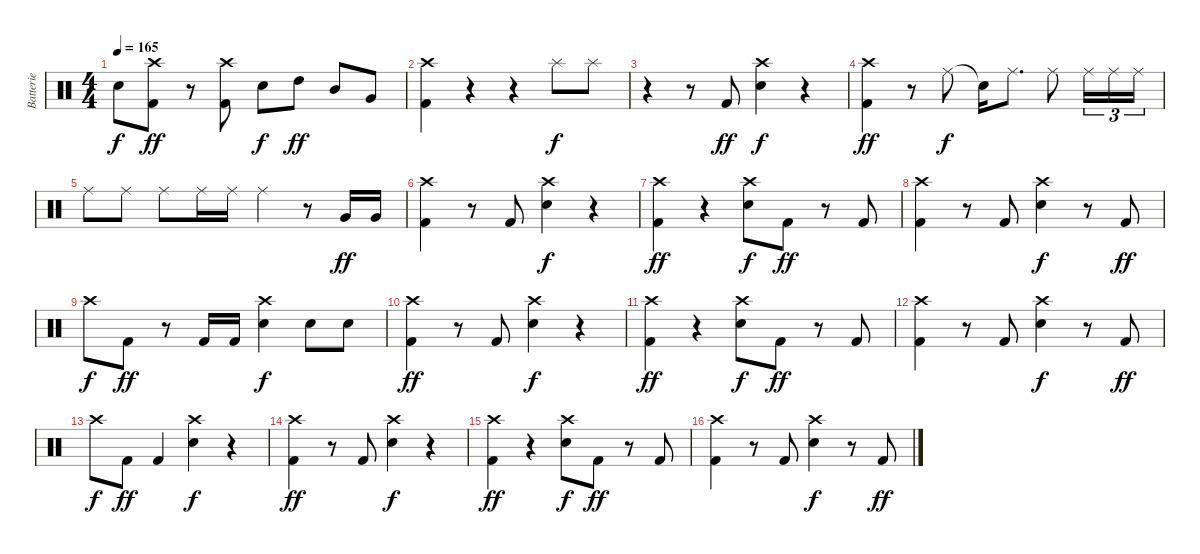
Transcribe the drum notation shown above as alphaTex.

\track ("Batterie" "Batterie") {instrument percussion}
\staff {score}
\articulation defaults
\ts (4 4)
\tempo 165
\clef neutral
\ks c "Snare (hit) 2".8{dy f}
("Crash high (hit)" "Kick (hit) 2").8{dy ff} r.8 ("Crash high (hit)" "Kick (hit) 2").8 "Snare (hit) 2".8{dy f} "High Tom (hit)".8{dy ff} "Mid Tom (hit)".8 "Very Low Tom (hit)".8 |
("Crash high (hit)" "Kick (hit) 2").4 r.4 r.4 "Splash (hit)".8{dy f} "Splash (hit)".8 |
r.4 r.8 "Kick (hit) 2".8{dy ff} ("Crash high (hit)" "Snare (hit) 2").4{dy f} r.4 |
("Crash high (hit)" "Kick (hit) 2").4{dy ff} r.8 "Ride (middle)".8{dy f} "Snare (hit)"{t}.16 "Ride (middle)".8{d} "Ride (middle)".8 "Ride (middle)".16{tu (3 2)} "Ride (middle)".16{tu (3 2)} "Ride (middle)".16{tu (3 2)} |
"Ride (middle)".8 "Ride (middle)".8 "Ride (middle)".8 "Ride (middle)".16 "Ride (middle)".16 "Ride (middle)".4 r.8 "Very Low Tom (hit)".16{dy ff} "Very Low Tom (hit)".16 |
("Crash high (hit)" "Kick (hit) 2").4 r.8 "Kick (hit) 2".8 ("Crash high (hit)" "Snare (hit) 2").4{dy f} r.4 |
("Crash high (hit)" "Kick (hit) 2").4{dy ff} r.4 ("Crash high (hit)" "Snare (hit) 2").8{dy f} "Kick (hit) 2".8{dy ff} r.8 "Kick (hit) 2".8 |
("Crash high (hit)" "Kick (hit) 2").4 r.8 "Kick (hit) 2".8 ("Crash high (hit)" "Snare (hit) 2").4{dy f} r.8 "Kick (hit) 2".8{dy ff} |
"Crash high (hit)".8{dy f} "Kick (hit) 2".8{dy ff} r.8 "Kick (hit) 2".16 "Kick (hit) 2".16 ("Crash high (hit)" "Snare (hit) 2").4{dy f} "Snare (hit) 2".8 "Snare (hit) 2".8 |
("Crash high (hit)" "Kick (hit) 2").4{dy ff} r.8 "Kick (hit) 2".8 ("Crash high (hit)" "Snare (hit) 2").4{dy f} r.4 |
("Crash high (hit)" "Kick (hit) 2").4{dy ff} r.4 ("Crash high (hit)" "Snare (hit) 2").8{dy f} "Kick (hit) 2".8{dy ff} r.8 "Kick (hit) 2".8 |
("Crash high (hit)" "Kick (hit) 2").4 r.8 "Kick (hit) 2".8 ("Crash high (hit)" "Snare (hit) 2").4{dy f} r.8 "Kick (hit) 2".8{dy ff} |
"Crash high (hit)".8{dy f} "Kick (hit) 2".8{dy ff} "Kick (hit) 2".4 ("Crash high (hit)" "Snare (hit) 2").4{dy f} r.4 |
("Crash high (hit)" "Kick (hit) 2").4{dy ff} r.8 "Kick (hit) 2".8 ("Crash high (hit)" "Snare (hit) 2").4{dy f} r.4 |
("Crash high (hit)" "Kick (hit) 2").4{dy ff} r.4 ("Crash high (hit)" "Snare (hit) 2").8{dy f} "Kick (hit) 2".8{dy ff} r.8 "Kick (hit) 2".8 |
("Crash high (hit)" "Kick (hit) 2").4 r.8 "Kick (hit) 2".8 ("Crash high (hit)" "Snare (hit) 2").4{dy f} r.8 "Kick (hit) 2".8{dy ff}
